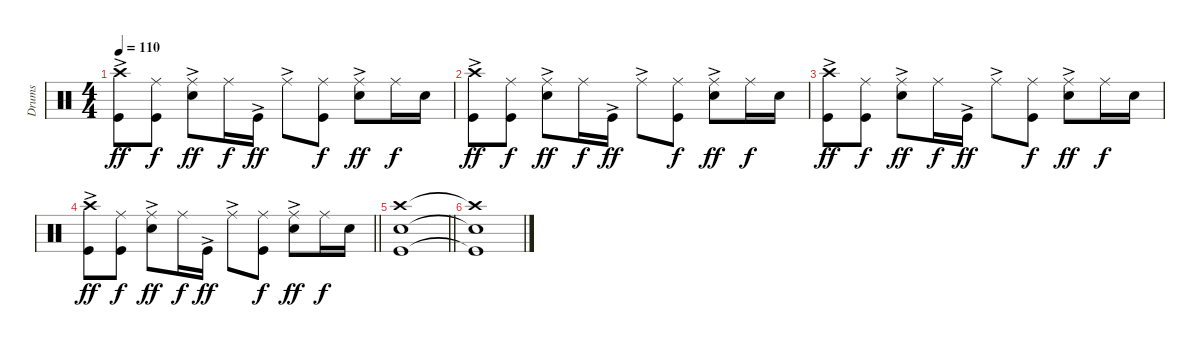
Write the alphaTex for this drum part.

\track ("Drums" "Drums") {instrument percussion}
\staff {score}
\articulation defaults
\ts (4 4)
\tempo 110
\clef neutral
\ks c
("Crash high (hit)"{ac} "Kick (hit)"{ac}).8{dy ff} ("Ride (middle)" "Kick (hit)").8{dy f} ("Ride (middle)"{ac} "Snare (hit) 2").8{dy ff} "Ride (middle)".16{dy f} "Kick (hit)"{ac}.16{dy ff} "Ride (middle)"{ac}.8 ("Ride (middle)" "Kick (hit)").8{dy f} ("Ride (middle)"{ac} "Snare (hit) 2").8{dy ff} "Ride (middle)".16{dy f} "Snare (hit) 2".16 |
("Crash high (hit)"{ac} "Kick (hit)"{ac}).8{dy ff} ("Ride (middle)" "Kick (hit)").8{dy f} ("Ride (middle)"{ac} "Snare (hit) 2").8{dy ff} "Ride (middle)".16{dy f} "Kick (hit)"{ac}.16{dy ff} "Ride (middle)"{ac}.8 ("Ride (middle)" "Kick (hit)").8{dy f} ("Ride (middle)"{ac} "Snare (hit) 2").8{dy ff} "Ride (middle)".16{dy f} "Snare (hit) 2".16 |
("Crash high (hit)"{ac} "Kick (hit)"{ac}).8{dy ff} ("Ride (middle)" "Kick (hit)").8{dy f} ("Ride (middle)"{ac} "Snare (hit) 2").8{dy ff} "Ride (middle)".16{dy f} "Kick (hit)"{ac}.16{dy ff} "Ride (middle)"{ac}.8 ("Ride (middle)" "Kick (hit)").8{dy f} ("Ride (middle)"{ac} "Snare (hit) 2").8{dy ff} "Ride (middle)".16{dy f} "Snare (hit) 2".16 |
\barLineRight lightlight
("Crash high (hit)"{ac} "Kick (hit)"{ac}).8{dy ff} ("Ride (middle)" "Kick (hit)").8{dy f} ("Ride (middle)"{ac} "Snare (hit) 2").8{dy ff} "Ride (middle)".16{dy f} "Kick (hit)"{ac}.16{dy ff} "Ride (middle)"{ac}.8 ("Ride (middle)" "Kick (hit)").8{dy f} ("Ride (middle)"{ac} "Snare (hit) 2").8{dy ff} "Ride (middle)".16{dy f} "Snare (hit) 2".16 |
\barLineRight lightlight
("Crash high (hit)" "Snare (hit) 2" "Kick (hit)").1 |
("Crash high (hit)"{t} "Snare (hit) 2"{t} "Kick (hit)"{t}).1
